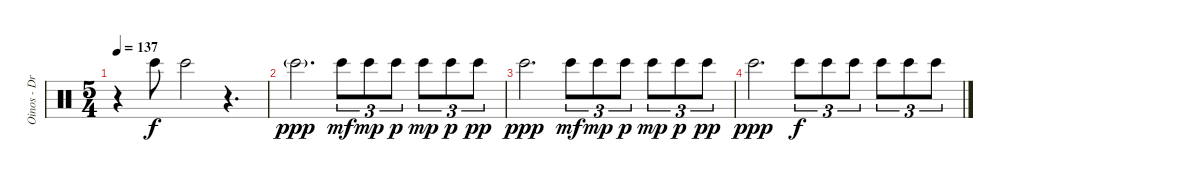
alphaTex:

\track ("Oinos - Drums" "Oinos - Dr") {instrument percussion}
\staff {score}
\articulation defaults
\ts (5 4)
\tempo 137
\clef neutral
\ks c
r.4{dy f} "Bongo High (hit)".8 "Bongo High (hit)".2 r.4{d} |
"Bongo High (hit)"{g}.2{d dy ppp} "Bongo High (hit)".8{tu (3 2) dy mf} "Bongo High (hit)".8{tu (3 2) dy mp} "Bongo High (hit)".8{tu (3 2) dy p} "Bongo High (hit)".8{tu (3 2) dy mp} "Bongo High (hit)".8{tu (3 2) dy p} "Bongo High (hit)".8{tu (3 2) dy pp} |
"Bongo High (hit)".2{d dy ppp} "Bongo High (hit)".8{tu (3 2) dy mf} "Bongo High (hit)".8{tu (3 2) dy mp} "Bongo High (hit)".8{tu (3 2) dy p} "Bongo High (hit)".8{tu (3 2) dy mp} "Bongo High (hit)".8{tu (3 2) dy p} "Bongo High (hit)".8{tu (3 2) dy pp} |
"Bongo High (hit)".2{d dy ppp} "Bongo High (hit)".8{tu (3 2) dy f} "Bongo High (hit)".8{tu (3 2)} "Bongo High (hit)".8{tu (3 2)} "Bongo High (hit)".8{tu (3 2)} "Bongo High (hit)".8{tu (3 2)} "Bongo High (hit)".8{tu (3 2)}
